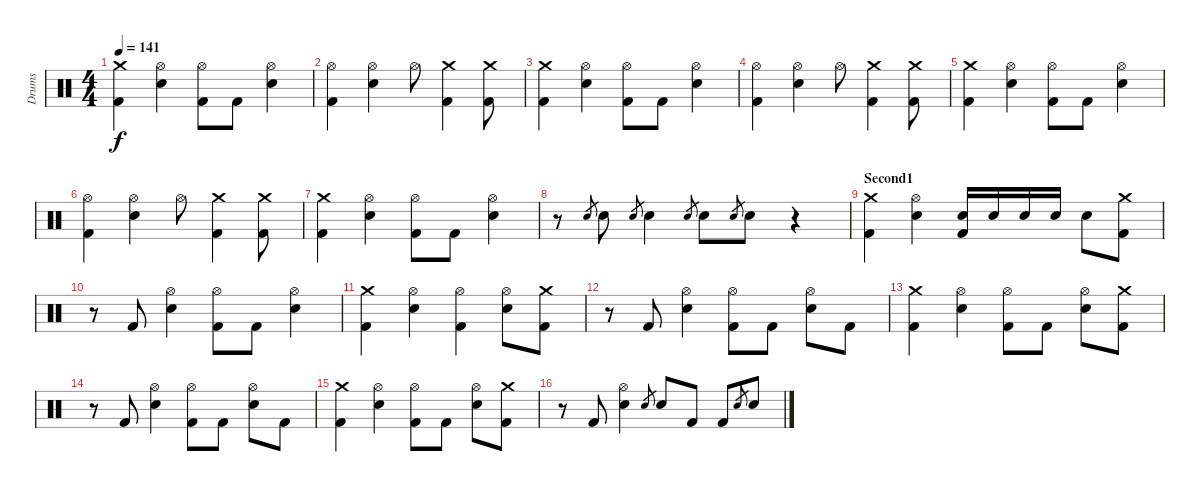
\track ("Drums" "Drums") {instrument percussion}
\staff {score}
\articulation defaults
\ts (4 4)
\tempo 141
\clef neutral
\ks c
("Crash medium (hit)" "Kick (hit) 2").4{dy f} ("Hi-Hat (open)" "Electric Snare (hit)").4 ("Hi-Hat (open)" "Kick (hit) 2").8 "Kick (hit) 2".8 ("Hi-Hat (open)" "Electric Snare (hit)").4 |
("Hi-Hat (open)" "Kick (hit) 2").4 ("Hi-Hat (open)" "Electric Snare (hit)").4 "Hi-Hat (open)".8 ("Crash medium (hit)" "Kick (hit) 2").4 ("Crash medium (hit)" "Kick (hit) 2").8 |
("Crash medium (hit)" "Kick (hit) 2").4 ("Hi-Hat (open)" "Electric Snare (hit)").4 ("Hi-Hat (open)" "Kick (hit) 2").8 "Kick (hit) 2".8 ("Hi-Hat (open)" "Electric Snare (hit)").4 |
("Hi-Hat (open)" "Kick (hit) 2").4 ("Hi-Hat (open)" "Electric Snare (hit)").4 "Hi-Hat (open)".8 ("Crash medium (hit)" "Kick (hit) 2").4 ("Crash medium (hit)" "Kick (hit) 2").8 |
("Crash medium (hit)" "Kick (hit) 2").4 ("Hi-Hat (open)" "Electric Snare (hit)").4 ("Hi-Hat (open)" "Kick (hit) 2").8 "Kick (hit) 2".8 ("Hi-Hat (open)" "Electric Snare (hit)").4 |
("Hi-Hat (open)" "Kick (hit) 2").4 ("Hi-Hat (open)" "Electric Snare (hit)").4 "Hi-Hat (open)".8 ("Crash medium (hit)" "Kick (hit) 2").4 ("Crash medium (hit)" "Kick (hit) 2").8 |
("Crash medium (hit)" "Kick (hit) 2").4 ("Hi-Hat (open)" "Electric Snare (hit)").4 ("Hi-Hat (open)" "Kick (hit) 2").8 "Kick (hit) 2".8 ("Hi-Hat (open)" "Electric Snare (hit)").4 |
r.8 "Electric Snare (hit)".8{gr} "Electric Snare (hit)".8 "Electric Snare (hit)".8{gr} "Electric Snare (hit)".4 "Electric Snare (hit)".8{gr} "Electric Snare (hit)".8 "Electric Snare (hit)".8{gr} "Electric Snare (hit)".8 r.4 |
\section ("" "Second1")
("Crash medium (hit)" "Kick (hit) 2").4 ("Hi-Hat (open)" "Electric Snare (hit)").4 ("Electric Snare (hit)" "Kick (hit) 2").16 "Electric Snare (hit)".16 "Electric Snare (hit)".16 "Electric Snare (hit)".16 "Electric Snare (hit)".8 ("Crash medium (hit)" "Kick (hit) 2").8 |
r.8 "Kick (hit) 2".8 ("Hi-Hat (open)" "Electric Snare (hit)").4 ("Hi-Hat (open)" "Kick (hit) 2").8 "Kick (hit) 2".8 ("Hi-Hat (open)" "Electric Snare (hit)").4 |
("Crash medium (hit)" "Kick (hit) 2").4 ("Hi-Hat (open)" "Electric Snare (hit)").4 ("Hi-Hat (open)" "Kick (hit) 2").4 ("Hi-Hat (open)" "Electric Snare (hit)").8 ("Crash medium (hit)" "Kick (hit) 2").8 |
r.8 "Kick (hit) 2".8 ("Hi-Hat (open)" "Electric Snare (hit)").4 ("Hi-Hat (open)" "Kick (hit) 2").8 "Kick (hit) 2".8 ("Hi-Hat (open)" "Electric Snare (hit)").8 "Kick (hit) 2".8 |
("Crash medium (hit)" "Kick (hit) 2").4 ("Hi-Hat (open)" "Electric Snare (hit)").4 ("Hi-Hat (open)" "Kick (hit) 2").8 "Kick (hit) 2".8 ("Hi-Hat (open)" "Electric Snare (hit)").8 ("Crash medium (hit)" "Kick (hit) 2").8 |
r.8 "Kick (hit) 2".8 ("Hi-Hat (open)" "Electric Snare (hit)").4 ("Hi-Hat (open)" "Kick (hit) 2").8 "Kick (hit) 2".8 ("Hi-Hat (open)" "Electric Snare (hit)").8 "Kick (hit) 2".8 |
("Crash medium (hit)" "Kick (hit) 2").4 ("Hi-Hat (open)" "Electric Snare (hit)").4 ("Hi-Hat (open)" "Kick (hit) 2").8 "Kick (hit) 2".8 ("Hi-Hat (open)" "Electric Snare (hit)").8 ("Crash medium (hit)" "Kick (hit) 2").8 |
r.8 "Kick (hit) 2".8 ("Hi-Hat (open)" "Electric Snare (hit)").4 "Electric Snare (hit)".8{gr} "Electric Snare (hit)".8 "Kick (hit) 2".8 "Kick (hit) 2".8 "Electric Snare (hit)".8{gr} "Electric Snare (hit)".8
